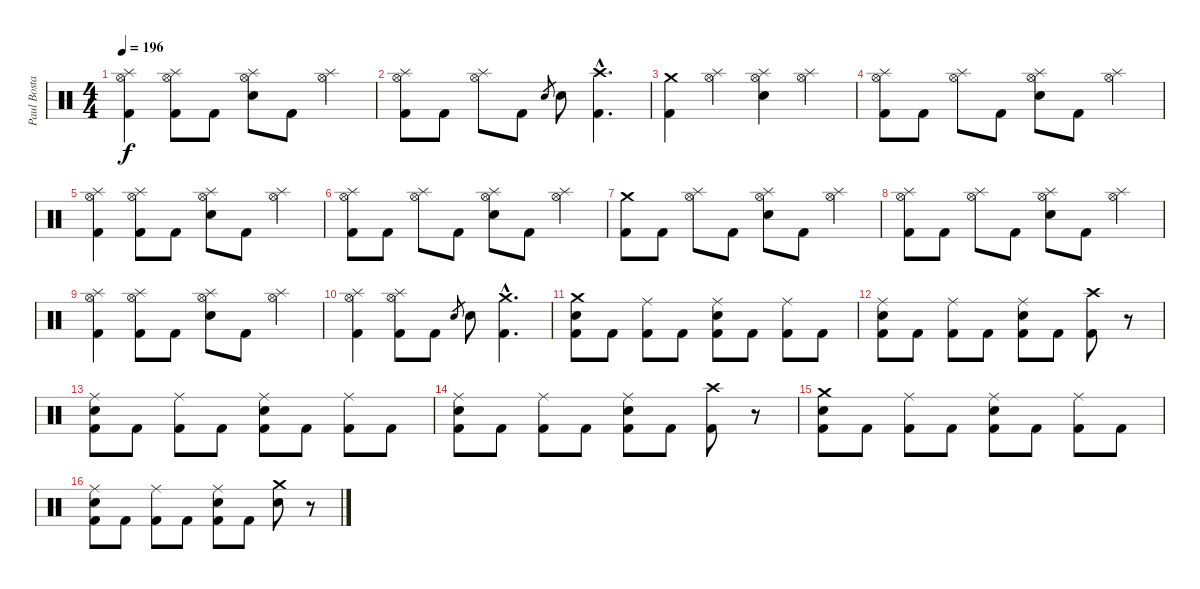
\track ("Paul Bostaph" "Paul Bosta") {instrument percussion}
\staff {score}
\articulation defaults
\ts (4 4)
\tempo 196
\clef neutral
\ks c
("Splash (hit)" "Kick (hit) 2" "Hi-Hat (open)").4{dy f} ("Splash (hit)" "Kick (hit) 2" "Hi-Hat (open)").8 "Kick (hit) 2".8 ("Splash (hit)" "Electric Snare (hit)" "Hi-Hat (open)").8 "Kick (hit) 2".8 ("Splash (hit)" "Hi-Hat (open)").4 |
("Splash (hit)" "Kick (hit) 2" "Hi-Hat (open)").8 "Kick (hit) 2".8 ("Splash (hit)" "Hi-Hat (open)").8 "Kick (hit) 2".8 "Electric Snare (hit)".8{gr} "Electric Snare (hit)".8 ("Crash high (hit)"{hac} "Kick (hit) 2"{hac}).4{d} |
("Crash medium (hit)" "Kick (hit) 2").4 ("Splash (hit)" "Hi-Hat (open)").4 ("Splash (hit)" "Electric Snare (hit)" "Hi-Hat (open)").4 ("Splash (hit)" "Hi-Hat (open)").4 |
("Splash (hit)" "Kick (hit) 2" "Hi-Hat (open)").8 "Kick (hit) 2".8 ("Splash (hit)" "Hi-Hat (open)").8 "Kick (hit) 2".8 ("Splash (hit)" "Electric Snare (hit)" "Hi-Hat (open)").8 "Kick (hit) 2".8 ("Splash (hit)" "Hi-Hat (open)").4 |
("Splash (hit)" "Kick (hit) 2" "Hi-Hat (open)").4 ("Splash (hit)" "Kick (hit) 2" "Hi-Hat (open)").8 "Kick (hit) 2".8 ("Splash (hit)" "Electric Snare (hit)" "Hi-Hat (open)").8 "Kick (hit) 2".8 ("Splash (hit)" "Hi-Hat (open)").4 |
("Splash (hit)" "Kick (hit) 2" "Hi-Hat (open)").8 "Kick (hit) 2".8 ("Splash (hit)" "Hi-Hat (open)").8 "Kick (hit) 2".8 ("Splash (hit)" "Electric Snare (hit)" "Hi-Hat (open)").8 "Kick (hit) 2".8 ("Splash (hit)" "Hi-Hat (open)").4 |
("Crash medium (hit)" "Kick (hit) 2").8 "Kick (hit) 2".8 ("Splash (hit)" "Hi-Hat (open)").8 "Kick (hit) 2".8 ("Splash (hit)" "Electric Snare (hit)" "Hi-Hat (open)").8 "Kick (hit) 2".8 ("Splash (hit)" "Hi-Hat (open)").4 |
("Splash (hit)" "Kick (hit) 2" "Hi-Hat (open)").8 "Kick (hit) 2".8 ("Splash (hit)" "Hi-Hat (open)").8 "Kick (hit) 2".8 ("Splash (hit)" "Electric Snare (hit)" "Hi-Hat (open)").8 "Kick (hit) 2".8 ("Splash (hit)" "Hi-Hat (open)").4 |
("Splash (hit)" "Kick (hit) 2" "Hi-Hat (open)").4 ("Splash (hit)" "Kick (hit) 2" "Hi-Hat (open)").8 "Kick (hit) 2".8 ("Splash (hit)" "Electric Snare (hit)" "Hi-Hat (open)").8 "Kick (hit) 2".8 ("Splash (hit)" "Hi-Hat (open)").4 |
("Splash (hit)" "Kick (hit) 2" "Hi-Hat (open)").4 ("Splash (hit)" "Kick (hit) 2" "Hi-Hat (open)").8 "Kick (hit) 2".8 "Electric Snare (hit)".8{gr} "Electric Snare (hit)".8 ("Crash medium (hit)"{hac} "Kick (hit) 2"{hac}).4{d} |
("Kick (hit) 2" "Electric Snare (hit)" "Crash medium (hit)").8 "Kick (hit) 2".8 ("Kick (hit) 2" "Ride (middle)").8 "Kick (hit) 2".8 ("Kick (hit) 2" "Electric Snare (hit)" "Ride (middle)").8 "Kick (hit) 2".8 ("Kick (hit) 2" "Ride (middle)").8 "Kick (hit) 2".8 |
("Kick (hit) 2" "Electric Snare (hit)" "Ride (middle)").8 "Kick (hit) 2".8 ("Kick (hit) 2" "Ride (middle)").8 "Kick (hit) 2".8 ("Kick (hit) 2" "Electric Snare (hit)" "Ride (middle)").8 "Kick (hit) 2".8 ("Kick (hit) 2" "Crash high (hit)").8 r.8 |
("Kick (hit) 2" "Electric Snare (hit)" "Ride (middle)").8 "Kick (hit) 2".8 ("Kick (hit) 2" "Ride (middle)").8 "Kick (hit) 2".8 ("Kick (hit) 2" "Electric Snare (hit)" "Ride (middle)").8 "Kick (hit) 2".8 ("Kick (hit) 2" "Ride (middle)").8 "Kick (hit) 2".8 |
("Kick (hit) 2" "Electric Snare (hit)" "Ride (middle)").8 "Kick (hit) 2".8 ("Kick (hit) 2" "Ride (middle)").8 "Kick (hit) 2".8 ("Kick (hit) 2" "Electric Snare (hit)" "Ride (middle)").8 "Kick (hit) 2".8 ("Kick (hit) 2" "Crash high (hit)").8 r.8 |
("Kick (hit) 2" "Electric Snare (hit)" "Crash medium (hit)").8 "Kick (hit) 2".8 ("Kick (hit) 2" "Ride (middle)").8 "Kick (hit) 2".8 ("Kick (hit) 2" "Electric Snare (hit)" "Ride (middle)").8 "Kick (hit) 2".8 ("Kick (hit) 2" "Ride (middle)").8 "Kick (hit) 2".8 |
("Kick (hit) 2" "Electric Snare (hit)" "Ride (middle)").8 "Kick (hit) 2".8 ("Kick (hit) 2" "Ride (middle)").8 "Kick (hit) 2".8 ("Kick (hit) 2" "Electric Snare (hit)" "Ride (middle)").8 "Kick (hit) 2".8 ("Electric Snare (hit)" "Crash medium (hit)").8 r.8
